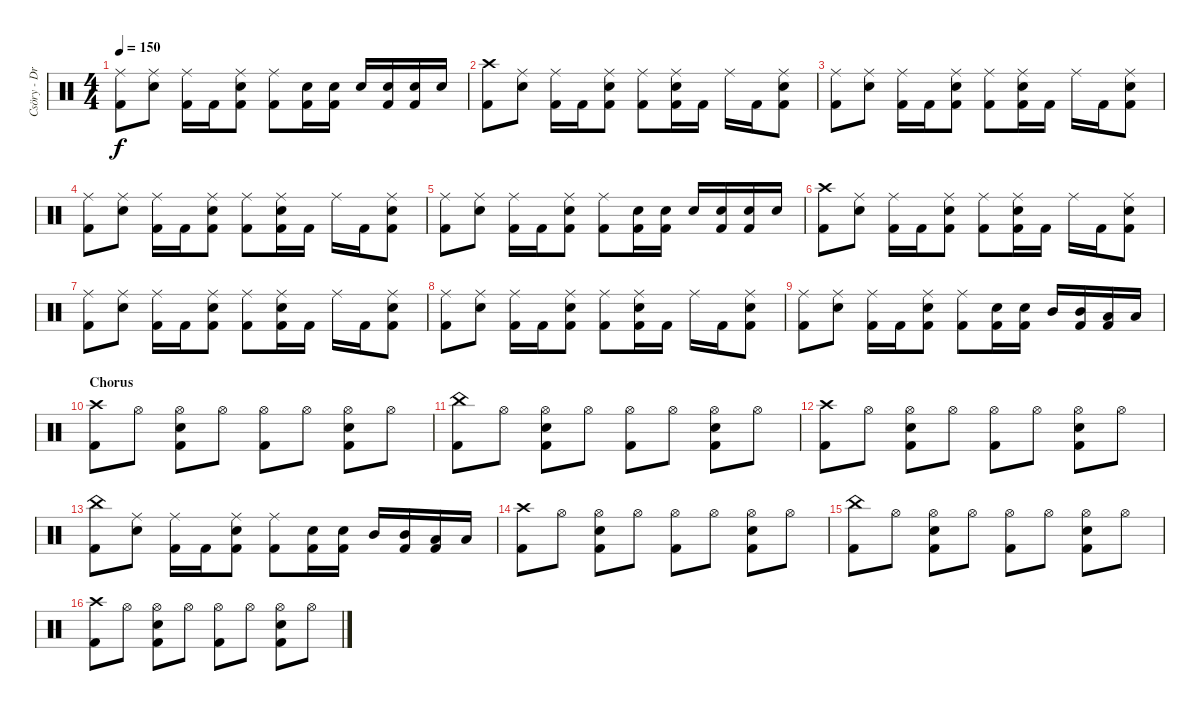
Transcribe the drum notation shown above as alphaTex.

\track ("Csöry - DrumZ" "Csöry - Dr") {instrument percussion}
\staff {score}
\articulation defaults
\ts (4 4)
\tempo 150
\clef neutral
\ks c
("Ride (middle)" "Kick (hit) 2").8{dy f} ("Ride (middle)" "Snare (hit) 2").8 ("Ride (middle)" "Kick (hit) 2").16 "Kick (hit) 2".16 ("Ride (middle)" "Snare (hit) 2" "Kick (hit) 2").8 ("Ride (middle)" "Kick (hit) 2").8 ("Snare (hit) 2" "Kick (hit) 2").16 ("Snare (hit) 2" "Kick (hit) 2").16 "Snare (hit) 2".16 ("Snare (hit) 2" "Kick (hit) 2").16 ("Snare (hit) 2" "Kick (hit) 2").16 "Snare (hit) 2".16 |
("Crash high (hit)" "Kick (hit) 2").8 ("Ride (middle)" "Snare (hit) 2").8 ("Ride (middle)" "Kick (hit) 2").16 "Kick (hit) 2".16 ("Ride (middle)" "Snare (hit) 2" "Kick (hit) 2").8 ("Ride (middle)" "Kick (hit) 2").8 ("Ride (middle)" "Snare (hit) 2" "Kick (hit) 2").16 "Kick (hit) 2".16 "Ride (middle)".16 "Kick (hit) 2".16 ("Ride (middle)" "Snare (hit) 2" "Kick (hit) 2").8 |
("Ride (middle)" "Kick (hit) 2").8 ("Ride (middle)" "Snare (hit) 2").8 ("Ride (middle)" "Kick (hit) 2").16 "Kick (hit) 2".16 ("Ride (middle)" "Snare (hit) 2" "Kick (hit) 2").8 ("Ride (middle)" "Kick (hit) 2").8 ("Ride (middle)" "Snare (hit) 2" "Kick (hit) 2").16 "Kick (hit) 2".16 "Ride (middle)".16 "Kick (hit) 2".16 ("Ride (middle)" "Snare (hit) 2" "Kick (hit) 2").8 |
("Ride (middle)" "Kick (hit) 2").8 ("Ride (middle)" "Snare (hit) 2").8 ("Ride (middle)" "Kick (hit) 2").16 "Kick (hit) 2".16 ("Ride (middle)" "Snare (hit) 2" "Kick (hit) 2").8 ("Ride (middle)" "Kick (hit) 2").8 ("Ride (middle)" "Snare (hit) 2" "Kick (hit) 2").16 "Kick (hit) 2".16 "Ride (middle)".16 "Kick (hit) 2".16 ("Ride (middle)" "Snare (hit) 2" "Kick (hit) 2").8 |
("Ride (middle)" "Kick (hit) 2").8 ("Ride (middle)" "Snare (hit) 2").8 ("Ride (middle)" "Kick (hit) 2").16 "Kick (hit) 2".16 ("Ride (middle)" "Snare (hit) 2" "Kick (hit) 2").8 ("Ride (middle)" "Kick (hit) 2").8 ("Snare (hit) 2" "Kick (hit) 2").16 ("Snare (hit) 2" "Kick (hit) 2").16 "Snare (hit) 2".16 ("Snare (hit) 2" "Kick (hit) 2").16 ("Snare (hit) 2" "Kick (hit) 2").16 "Snare (hit) 2".16 |
("Crash high (hit)" "Kick (hit) 2").8 ("Ride (middle)" "Snare (hit) 2").8 ("Ride (middle)" "Kick (hit) 2").16 "Kick (hit) 2".16 ("Ride (middle)" "Snare (hit) 2" "Kick (hit) 2").8 ("Ride (middle)" "Kick (hit) 2").8 ("Ride (middle)" "Snare (hit) 2" "Kick (hit) 2").16 "Kick (hit) 2".16 "Ride (middle)".16 "Kick (hit) 2".16 ("Ride (middle)" "Snare (hit) 2" "Kick (hit) 2").8 |
("Ride (middle)" "Kick (hit) 2").8 ("Ride (middle)" "Snare (hit) 2").8 ("Ride (middle)" "Kick (hit) 2").16 "Kick (hit) 2".16 ("Ride (middle)" "Snare (hit) 2" "Kick (hit) 2").8 ("Ride (middle)" "Kick (hit) 2").8 ("Ride (middle)" "Snare (hit) 2" "Kick (hit) 2").16 "Kick (hit) 2".16 "Ride (middle)".16 "Kick (hit) 2".16 ("Ride (middle)" "Snare (hit) 2" "Kick (hit) 2").8 |
("Ride (middle)" "Kick (hit) 2").8 ("Ride (middle)" "Snare (hit) 2").8 ("Ride (middle)" "Kick (hit) 2").16 "Kick (hit) 2".16 ("Ride (middle)" "Snare (hit) 2" "Kick (hit) 2").8 ("Ride (middle)" "Kick (hit) 2").8 ("Ride (middle)" "Snare (hit) 2" "Kick (hit) 2").16 "Kick (hit) 2".16 "Ride (middle)".16 "Kick (hit) 2".16 ("Ride (middle)" "Snare (hit) 2" "Kick (hit) 2").8 |
("Ride (middle)" "Kick (hit) 2").8 ("Ride (middle)" "Snare (hit) 2").8 ("Ride (middle)" "Kick (hit) 2").16 "Kick (hit) 2".16 ("Ride (middle)" "Snare (hit) 2" "Kick (hit) 2").8 ("Ride (middle)" "Kick (hit) 2").8 ("Snare (hit) 2" "Kick (hit) 2").16 ("Snare (hit) 2" "Kick (hit) 2").16 "Mid Tom (hit)".16 ("Mid Tom (hit)" "Kick (hit) 2").16 ("Low Tom (hit)" "Kick (hit) 2").16 "Low Floor Tom (hit)".16 |
\section ("" "Chorus")
("Crash high (hit)" "Kick (hit) 2").8 "Hi-Hat (open)".8 ("Hi-Hat (open)" "Snare (hit) 2" "Kick (hit) 2").8 "Hi-Hat (open)".8 ("Hi-Hat (open)" "Kick (hit) 2").8 "Hi-Hat (open)".8 ("Hi-Hat (open)" "Snare (hit) 2" "Kick (hit) 2").8 "Hi-Hat (open)".8 |
("China (hit)" "Kick (hit) 2").8 "Hi-Hat (open)".8 ("Hi-Hat (open)" "Snare (hit) 2" "Kick (hit) 2").8 "Hi-Hat (open)".8 ("Hi-Hat (open)" "Kick (hit) 2").8 "Hi-Hat (open)".8 ("Hi-Hat (open)" "Snare (hit) 2" "Kick (hit) 2").8 "Hi-Hat (open)".8 |
("Crash high (hit)" "Kick (hit) 2").8 "Hi-Hat (open)".8 ("Hi-Hat (open)" "Snare (hit) 2" "Kick (hit) 2").8 "Hi-Hat (open)".8 ("Hi-Hat (open)" "Kick (hit) 2").8 "Hi-Hat (open)".8 ("Hi-Hat (open)" "Snare (hit) 2" "Kick (hit) 2").8 "Hi-Hat (open)".8 |
("China (hit)" "Kick (hit) 2").8 ("Ride (middle)" "Snare (hit) 2").8 ("Ride (middle)" "Kick (hit) 2").16 "Kick (hit) 2".16 ("Ride (middle)" "Snare (hit) 2" "Kick (hit) 2").8 ("Ride (middle)" "Kick (hit) 2").8 ("Snare (hit) 2" "Kick (hit) 2").16 ("Snare (hit) 2" "Kick (hit) 2").16 "Mid Tom (hit)".16 ("Mid Tom (hit)" "Kick (hit) 2").16 ("Low Tom (hit)" "Kick (hit) 2").16 "Low Floor Tom (hit)".16 |
("Crash high (hit)" "Kick (hit) 2").8 "Hi-Hat (open)".8 ("Hi-Hat (open)" "Snare (hit) 2" "Kick (hit) 2").8 "Hi-Hat (open)".8 ("Hi-Hat (open)" "Kick (hit) 2").8 "Hi-Hat (open)".8 ("Hi-Hat (open)" "Snare (hit) 2" "Kick (hit) 2").8 "Hi-Hat (open)".8 |
("China (hit)" "Kick (hit) 2").8 "Hi-Hat (open)".8 ("Hi-Hat (open)" "Snare (hit) 2" "Kick (hit) 2").8 "Hi-Hat (open)".8 ("Hi-Hat (open)" "Kick (hit) 2").8 "Hi-Hat (open)".8 ("Hi-Hat (open)" "Snare (hit) 2" "Kick (hit) 2").8 "Hi-Hat (open)".8 |
("Crash high (hit)" "Kick (hit) 2").8 "Hi-Hat (open)".8 ("Hi-Hat (open)" "Snare (hit) 2" "Kick (hit) 2").8 "Hi-Hat (open)".8 ("Hi-Hat (open)" "Kick (hit) 2").8 "Hi-Hat (open)".8 ("Hi-Hat (open)" "Snare (hit) 2" "Kick (hit) 2").8 "Hi-Hat (open)".8
